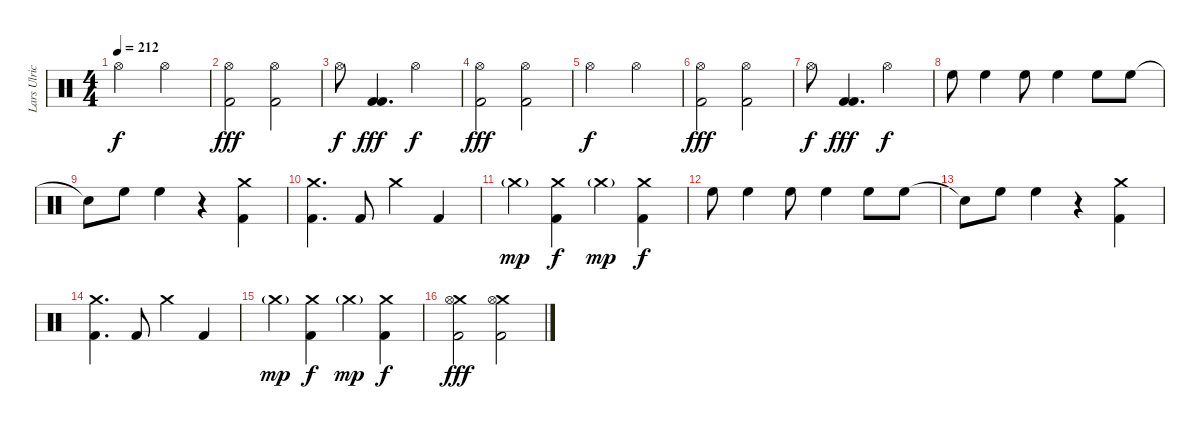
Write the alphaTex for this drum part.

\track ("Lars Ulrich" "Lars Ulric") {instrument percussion}
\staff {score}
\articulation defaults
\ts (4 4)
\tempo 212
\clef neutral
\ks c "Hi-Hat (open)".2{dy f} "Hi-Hat (open)".2
|
("Hi-Hat (open)" "Kick (hit) 2").2{dy fff} ("Hi-Hat (open)" "Kick (hit) 2").2 |
"Hi-Hat (open)".8{dy f} ("Kick (hit) 2" "Kick (hit) 2").4{d dy fff} "Hi-Hat (open)".2{dy f} |
("Hi-Hat (open)" "Kick (hit) 2").2{dy fff} ("Hi-Hat (open)" "Kick (hit) 2").2 |
"Hi-Hat (open)".2{dy f} "Hi-Hat (open)".2 |
("Hi-Hat (open)" "Kick (hit) 2").2{dy fff} ("Hi-Hat (open)" "Kick (hit) 2").2 |
"Hi-Hat (open)".8{dy f} ("Kick (hit) 2" "Kick (hit) 2").4{d dy fff} "Hi-Hat (open)".2{dy f} |
"High Floor Tom (hit)".8 "High Floor Tom (hit)".4 "High Floor Tom (hit)".8 "High Floor Tom (hit)".4 "High Floor Tom (hit)".8 "High Floor Tom (hit)".8 |
"Snare (hit)"{t}.8 "High Floor Tom (hit)".8 "High Floor Tom (hit)".4 r.4 ("Crash medium (hit)" "Kick (hit) 2").4 |
("Crash medium (hit)" "Kick (hit) 2").4{d} "Kick (hit) 2".8 "Crash medium (hit)".4 "Kick (hit) 2".4 |
"Crash medium (hit)"{g}.4{dy mp} ("Crash medium (hit)" "Kick (hit) 2").4{dy f} "Crash medium (hit)"{g}.4{dy mp} ("Crash medium (hit)" "Kick (hit) 2").4{dy f} |
"High Floor Tom (hit)".8 "High Floor Tom (hit)".4 "High Floor Tom (hit)".8 "High Floor Tom (hit)".4 "High Floor Tom (hit)".8 "High Floor Tom (hit)".8 |
"Snare (hit)"{t}.8 "High Floor Tom (hit)".8 "High Floor Tom (hit)".4 r.4 ("Crash medium (hit)" "Kick (hit) 2").4 |
("Crash medium (hit)" "Kick (hit) 2").4{d} "Kick (hit) 2".8 "Crash medium (hit)".4 "Kick (hit) 2".4 |
"Crash medium (hit)"{g}.4{dy mp} ("Crash medium (hit)" "Kick (hit) 2").4{dy f} "Crash medium (hit)"{g}.4{dy mp} ("Crash medium (hit)" "Kick (hit) 2").4{dy f} |
("Crash medium (hit)" "Hi-Hat (open)" "Kick (hit) 2").2{dy fff} ("Crash medium (hit)" "Hi-Hat (open)" "Kick (hit) 2").2
